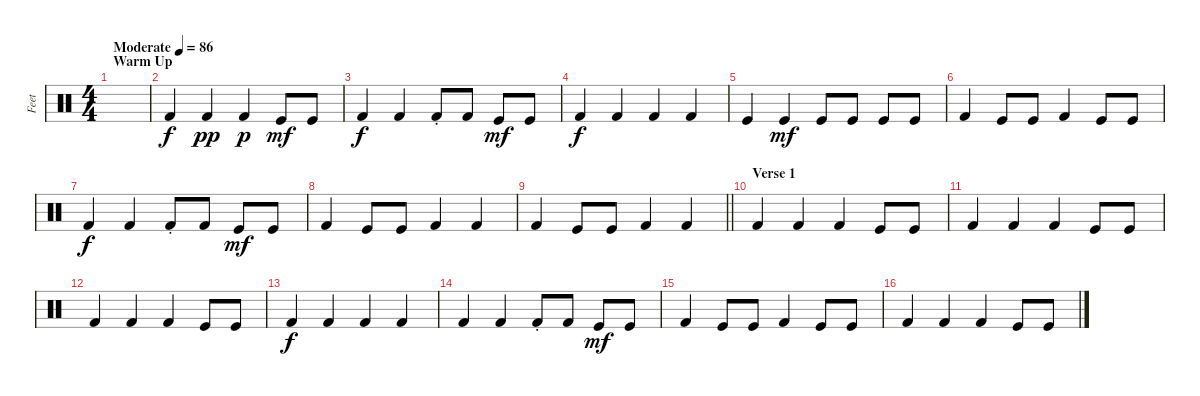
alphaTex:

\track ("Feet" "Feet") {instrument percussion}
\staff {score}
\articulation defaults
\ts (4 4)
\section ("" "Warm Up")
\tempo (86 "Moderate")
\clef neutral
\ks c
|
\ks aminor "Kick (hit) 2".4 "Kick (hit) 2".4{dy pp} "Kick (hit) 2".4{dy p} "Kick (hit)".8{dy mf} "Kick (hit)".8
|
"Kick (hit) 2".4{dy f} "Kick (hit) 2".4 "Kick (hit) 2"{st}.8 "Kick (hit) 2".8 "Kick (hit)".8{dy mf} "Kick (hit)".8 |
"Kick (hit) 2".4{dy f} "Kick (hit) 2".4 "Kick (hit) 2".4 "Kick (hit) 2".4 |
"Kick (hit)".4 "Kick (hit)".4{dy mf} "Kick (hit)".8 "Kick (hit)".8 "Kick (hit)".8 "Kick (hit)".8 |
"Kick (hit) 2".4 "Kick (hit)".8 "Kick (hit)".8 "Kick (hit) 2".4 "Kick (hit)".8 "Kick (hit)".8 |
"Kick (hit) 2".4{dy f} "Kick (hit) 2".4 "Kick (hit) 2"{st}.8 "Kick (hit) 2".8 "Kick (hit)".8{dy mf} "Kick (hit)".8 |
"Kick (hit) 2".4 "Kick (hit)".8 "Kick (hit)".8 "Kick (hit) 2".4 "Kick (hit) 2".4 |
\barLineRight lightlight "Kick (hit) 2".4 "Kick (hit)".8 "Kick (hit)".8 "Kick (hit) 2".4 "Kick (hit) 2".4
|
\section ("" "Verse 1")
"Kick (hit) 2".4 "Kick (hit) 2".4 "Kick (hit) 2".4 "Kick (hit)".8 "Kick (hit)".8 |
"Kick (hit) 2".4 "Kick (hit) 2".4 "Kick (hit) 2".4 "Kick (hit)".8 "Kick (hit)".8 |
"Kick (hit) 2".4 "Kick (hit) 2".4 "Kick (hit) 2".4 "Kick (hit)".8 "Kick (hit)".8 |
"Kick (hit) 2".4{dy f} "Kick (hit) 2".4 "Kick (hit) 2".4 "Kick (hit) 2".4 |
"Kick (hit) 2".4 "Kick (hit) 2".4 "Kick (hit) 2"{st}.8 "Kick (hit) 2".8 "Kick (hit)".8{dy mf} "Kick (hit)".8 |
"Kick (hit) 2".4 "Kick (hit)".8 "Kick (hit)".8 "Kick (hit) 2".4 "Kick (hit)".8 "Kick (hit)".8 |
"Kick (hit) 2".4 "Kick (hit) 2".4 "Kick (hit) 2".4 "Kick (hit)".8 "Kick (hit)".8
